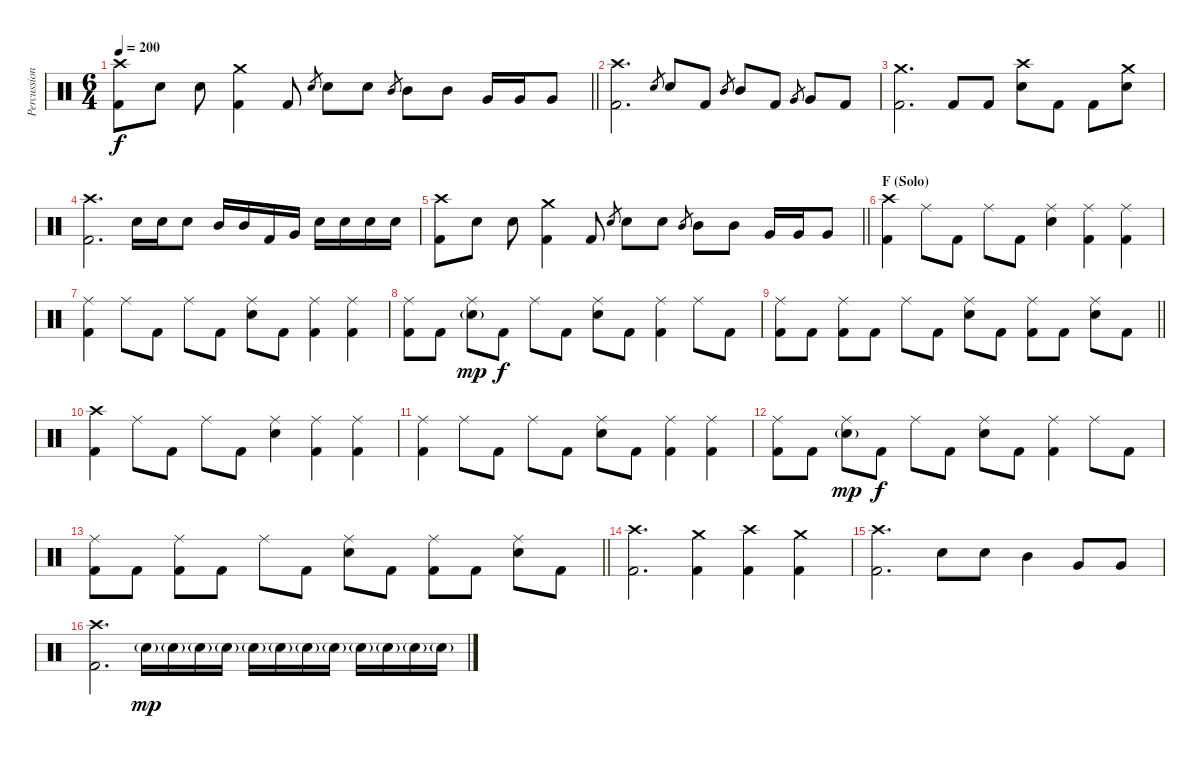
\track ("Percussion" "Percussion") {instrument percussion}
\staff {score}
\articulation defaults
\ts (6 4)
\tempo 200
\clef neutral
\barLineRight lightlight
\ks c
("Crash high (hit)" "Kick (hit) 2").8{dy f} "Electric Snare (hit)".8 "Electric Snare (hit)".8 ("Crash medium (hit)" "Kick (hit) 2").4 "Kick (hit) 2".8 "Electric Snare (hit)".8{gr} "Electric Snare (hit)".8 "Electric Snare (hit)".8 "Mid Tom (hit)".8{gr} "Mid Tom (hit)".8 "Mid Tom (hit)".8 "Very Low Tom (hit)".16 "Very Low Tom (hit)".16 "Very Low Tom (hit)".8 |
("Crash high (hit)" "Kick (hit) 2").2{d} "Electric Snare (hit)".8{gr} "Electric Snare (hit)".8 "Kick (hit) 2".8 "Mid Tom (hit)".8{gr} "Mid Tom (hit)".8 "Kick (hit) 2".8 "Very Low Tom (hit)".8{gr} "Very Low Tom (hit)".8 "Kick (hit) 2".8 |
("Crash medium (hit)" "Kick (hit) 2").2{d} "Kick (hit) 2".8 "Kick (hit) 2".8 ("Crash high (hit)" "Electric Snare (hit)").8 "Kick (hit) 2".8 "Kick (hit) 2".8 ("Crash medium (hit)" "Electric Snare (hit)").8 |
("Crash high (hit)" "Kick (hit) 2").2{d} "Electric Snare (hit)".16 "Electric Snare (hit)".16 "Electric Snare (hit)".8 "Mid Tom (hit)".16 "Mid Tom (hit)".16 "Kick (hit) 2".16 "Very Low Tom (hit)".16 "Electric Snare (hit)".16 "Electric Snare (hit)".16 "Electric Snare (hit)".16 "Electric Snare (hit)".16 |
\barLineRight lightlight
("Crash high (hit)" "Kick (hit) 2").8 "Electric Snare (hit)".8 "Electric Snare (hit)".8 ("Crash medium (hit)" "Kick (hit) 2").4 "Kick (hit) 2".8 "Electric Snare (hit)".8{gr} "Electric Snare (hit)".8 "Electric Snare (hit)".8 "Mid Tom (hit)".8{gr} "Mid Tom (hit)".8 "Mid Tom (hit)".8 "Very Low Tom (hit)".16 "Very Low Tom (hit)".16 "Very Low Tom (hit)".8 |
\section ("" "F (Solo)")
("Crash high (hit)" "Kick (hit) 2").4 "Ride (middle)".8 "Kick (hit) 2".8 "Ride (middle)".8 "Kick (hit) 2".8 ("Ride (middle)" "Electric Snare (hit)").4 ("Ride (middle)" "Kick (hit) 2").4 ("Ride (middle)" "Kick (hit) 2").4 |
("Ride (middle)" "Kick (hit) 2").4 "Ride (middle)".8 "Kick (hit) 2".8 "Ride (middle)".8 "Kick (hit) 2".8 ("Ride (middle)" "Electric Snare (hit)").8 "Kick (hit) 2".8 ("Ride (middle)" "Kick (hit) 2").4 ("Ride (middle)" "Kick (hit) 2").4 |
("Ride (middle)" "Kick (hit) 2").8 "Kick (hit) 2".8 ("Ride (middle)" "Electric Snare (hit)"{g}).8{dy mp} "Kick (hit) 2".8{dy f} "Ride (middle)".8 "Kick (hit) 2".8 ("Ride (middle)" "Electric Snare (hit)").8 "Kick (hit) 2".8 ("Ride (middle)" "Kick (hit) 2").4 "Ride (middle)".8 "Kick (hit) 2".8 |
\barLineRight lightlight
("Ride (middle)" "Kick (hit) 2").8 "Kick (hit) 2".8 ("Ride (middle)" "Kick (hit) 2").8 "Kick (hit) 2".8 "Ride (middle)".8 "Kick (hit) 2".8 ("Ride (middle)" "Electric Snare (hit)").8 "Kick (hit) 2".8 ("Ride (middle)" "Kick (hit) 2").8 "Kick (hit) 2".8 ("Ride (middle)" "Electric Snare (hit)").8 "Kick (hit) 2".8 |
("Crash high (hit)" "Kick (hit) 2").4 "Ride (middle)".8 "Kick (hit) 2".8 "Ride (middle)".8 "Kick (hit) 2".8 ("Ride (middle)" "Electric Snare (hit)").4 ("Ride (middle)" "Kick (hit) 2").4 ("Ride (middle)" "Kick (hit) 2").4 |
("Ride (middle)" "Kick (hit) 2").4 "Ride (middle)".8 "Kick (hit) 2".8 "Ride (middle)".8 "Kick (hit) 2".8 ("Ride (middle)" "Electric Snare (hit)").8 "Kick (hit) 2".8 ("Ride (middle)" "Kick (hit) 2").4 ("Ride (middle)" "Kick (hit) 2").4 |
("Ride (middle)" "Kick (hit) 2").8 "Kick (hit) 2".8 ("Ride (middle)" "Electric Snare (hit)"{g}).8{dy mp} "Kick (hit) 2".8{dy f} "Ride (middle)".8 "Kick (hit) 2".8 ("Ride (middle)" "Electric Snare (hit)").8 "Kick (hit) 2".8 ("Ride (middle)" "Kick (hit) 2").4 "Ride (middle)".8 "Kick (hit) 2".8 |
\barLineRight lightlight
("Ride (middle)" "Kick (hit) 2").8 "Kick (hit) 2".8 ("Ride (middle)" "Kick (hit) 2").8 "Kick (hit) 2".8 "Ride (middle)".8 "Kick (hit) 2".8 ("Ride (middle)" "Electric Snare (hit)").8 "Kick (hit) 2".8 ("Ride (middle)" "Kick (hit) 2").8 "Kick (hit) 2".8 ("Ride (middle)" "Electric Snare (hit)").8 "Kick (hit) 2".8 |
("Crash high (hit)" "Kick (hit) 2").2{d} ("Crash medium (hit)" "Kick (hit) 2").4 ("Crash high (hit)" "Kick (hit) 2").4 ("Crash medium (hit)" "Kick (hit) 2").4 |
("Crash high (hit)" "Kick (hit) 2").2{d} "Electric Snare (hit)".8 "Electric Snare (hit)".8 "Mid Tom (hit)".4 "Very Low Tom (hit)".8 "Very Low Tom (hit)".8 |
("Crash high (hit)" "Kick (hit) 2").2{d} "Electric Snare (hit)"{g}.16{dy mp} "Electric Snare (hit)"{g}.16 "Electric Snare (hit)"{g}.16 "Electric Snare (hit)"{g}.16 "Electric Snare (hit)"{g}.16 "Electric Snare (hit)"{g}.16 "Electric Snare (hit)"{g}.16 "Electric Snare (hit)"{g}.16 "Electric Snare (hit)"{g}.16 "Electric Snare (hit)"{g}.16 "Electric Snare (hit)"{g}.16 "Electric Snare (hit)"{g}.16
